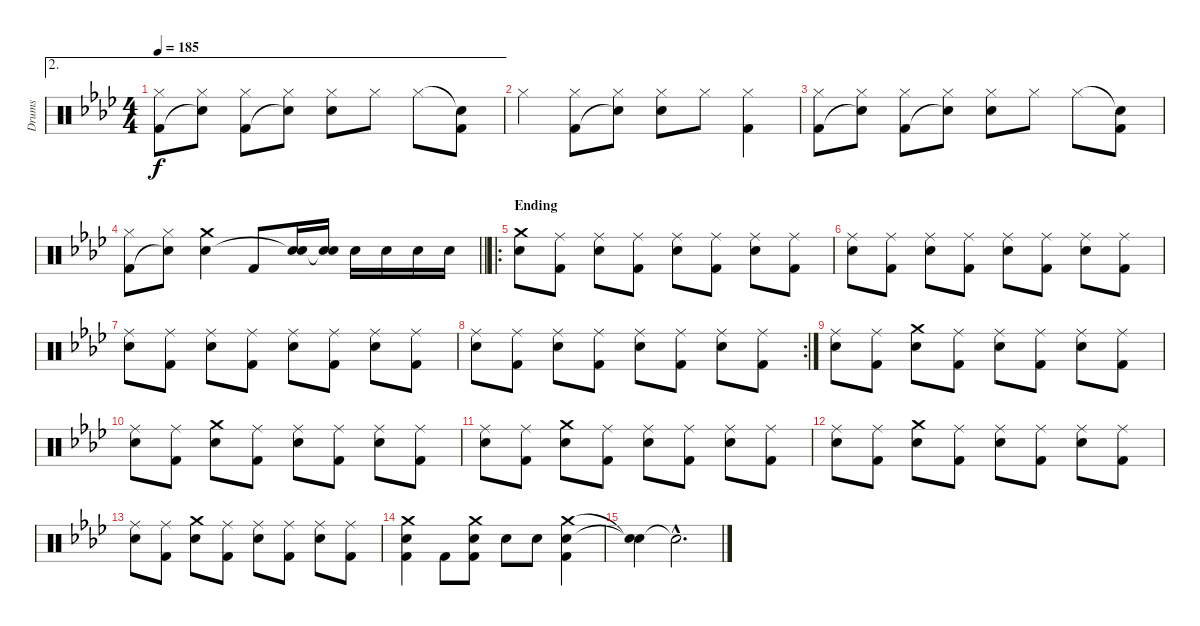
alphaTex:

\track ("Drums" "Drums") {instrument percussion}
\staff {score}
\articulation defaults
\ae 2
\ts (4 4)
\tempo 185
\clef neutral
\ks fminor
("Hi-Hat (closed)" "Kick (hit) 2").8{dy f} ("Hi-Hat (closed)" "Snare (hit)"{t}).8 ("Hi-Hat (closed)" "Kick (hit) 2").8 ("Hi-Hat (closed)" "Snare (hit)"{t}).8 ("Hi-Hat (closed)" "Electric Snare (hit)").8 "Hi-Hat (closed)".8 "Hi-Hat (closed)".8 ("Snare (hit)"{t} "Kick (hit) 2").8 |
"Hi-Hat (closed)".4 ("Hi-Hat (closed)" "Kick (hit) 2").8 ("Hi-Hat (closed)" "Snare (hit)"{t}).8 ("Hi-Hat (closed)" "Electric Snare (hit)").8 "Hi-Hat (closed)".8 ("Hi-Hat (closed)" "Kick (hit) 2").4 |
("Hi-Hat (closed)" "Kick (hit) 2").8 ("Hi-Hat (closed)" "Snare (hit)"{t}).8 ("Hi-Hat (closed)" "Kick (hit) 2").8 ("Hi-Hat (closed)" "Snare (hit)"{t}).8 ("Hi-Hat (closed)" "Electric Snare (hit)").8 "Hi-Hat (closed)".8 "Hi-Hat (closed)".8 ("Snare (hit)"{t} "Kick (hit) 2").8 |
\barLineRight lightlight
("Hi-Hat (closed)" "Kick (hit) 2").8 ("Hi-Hat (closed)" "Snare (hit)"{t}).8 ("Crash medium (hit)" "Electric Snare (hit)").4 "Kick (hit) 2".8 ("Electric Snare (hit)" "Snare (hit)"{t}).16 ("Electric Snare (hit)" "Snare (hit)"{t}).16 "Electric Snare (hit)".16 "Electric Snare (hit)".16 "Electric Snare (hit)".16 "Electric Snare (hit)".16 |
\ro
\section ("" "Ending")
("Crash medium (hit)" "Electric Snare (hit)").8 ("Ride (middle)" "Kick (hit) 2").8 ("Ride (middle)" "Electric Snare (hit)").8 ("Ride (middle)" "Kick (hit) 2").8 ("Ride (middle)" "Electric Snare (hit)").8 ("Ride (middle)" "Kick (hit) 2").8 ("Ride (middle)" "Electric Snare (hit)").8 ("Ride (middle)" "Kick (hit) 2").8 |
("Ride (middle)" "Electric Snare (hit)").8 ("Ride (middle)" "Kick (hit) 2").8 ("Ride (middle)" "Electric Snare (hit)").8 ("Ride (middle)" "Kick (hit) 2").8 ("Ride (middle)" "Electric Snare (hit)").8 ("Ride (middle)" "Kick (hit) 2").8 ("Ride (middle)" "Electric Snare (hit)").8 ("Ride (middle)" "Kick (hit) 2").8 |
("Ride (middle)" "Electric Snare (hit)").8 ("Ride (middle)" "Kick (hit) 2").8 ("Ride (middle)" "Electric Snare (hit)").8 ("Ride (middle)" "Kick (hit) 2").8 ("Ride (middle)" "Electric Snare (hit)").8 ("Ride (middle)" "Kick (hit) 2").8 ("Ride (middle)" "Electric Snare (hit)").8 ("Ride (middle)" "Kick (hit) 2").8 |
\rc 2
("Ride (middle)" "Electric Snare (hit)").8 ("Ride (middle)" "Kick (hit) 2").8 ("Ride (middle)" "Electric Snare (hit)").8 ("Ride (middle)" "Kick (hit) 2").8 ("Ride (middle)" "Electric Snare (hit)").8 ("Ride (middle)" "Kick (hit) 2").8 ("Ride (middle)" "Electric Snare (hit)").8 ("Ride (middle)" "Kick (hit) 2").8 |
("Ride (middle)" "Electric Snare (hit)").8 ("Ride (middle)" "Kick (hit) 2").8 ("Crash medium (hit)" "Electric Snare (hit)").8 ("Ride (middle)" "Kick (hit) 2").8 ("Ride (middle)" "Electric Snare (hit)").8 ("Ride (middle)" "Kick (hit) 2").8 ("Ride (middle)" "Electric Snare (hit)").8 ("Ride (middle)" "Kick (hit) 2").8 |
("Ride (middle)" "Electric Snare (hit)").8 ("Ride (middle)" "Kick (hit) 2").8 ("Crash medium (hit)" "Electric Snare (hit)").8 ("Ride (middle)" "Kick (hit) 2").8 ("Ride (middle)" "Electric Snare (hit)").8 ("Ride (middle)" "Kick (hit) 2").8 ("Ride (middle)" "Electric Snare (hit)").8 ("Ride (middle)" "Kick (hit) 2").8 |
("Ride (middle)" "Electric Snare (hit)").8 ("Ride (middle)" "Kick (hit) 2").8 ("Crash medium (hit)" "Electric Snare (hit)").8 ("Ride (middle)" "Kick (hit) 2").8 ("Ride (middle)" "Electric Snare (hit)").8 ("Ride (middle)" "Kick (hit) 2").8 ("Ride (middle)" "Electric Snare (hit)").8 ("Ride (middle)" "Kick (hit) 2").8 |
("Ride (middle)" "Electric Snare (hit)").8 ("Ride (middle)" "Kick (hit) 2").8 ("Crash medium (hit)" "Electric Snare (hit)").8 ("Ride (middle)" "Kick (hit) 2").8 ("Ride (middle)" "Electric Snare (hit)").8 ("Ride (middle)" "Kick (hit) 2").8 ("Ride (middle)" "Electric Snare (hit)").8 ("Ride (middle)" "Kick (hit) 2").8 |
("Ride (middle)" "Electric Snare (hit)").8 ("Ride (middle)" "Kick (hit) 2").8 ("Crash medium (hit)" "Electric Snare (hit)").8 ("Ride (middle)" "Kick (hit) 2").8 ("Ride (middle)" "Electric Snare (hit)").8 ("Ride (middle)" "Kick (hit) 2").8 ("Ride (middle)" "Electric Snare (hit)").8 ("Ride (middle)" "Kick (hit) 2").8 |
("Crash medium (hit)" "Electric Snare (hit)" "Kick (hit) 2").4 "Kick (hit) 2".8 ("Crash medium (hit)" "Electric Snare (hit)" "Kick (hit) 2").8 "Electric Snare (hit)".8 "Electric Snare (hit)".8 ("Crash medium (hit)" "Electric Snare (hit)" "Kick (hit) 2").4 |
("Snare (hit)"{t} "Snare (hit)"{t}).4 "Snare (hit)"{hac t}.2{d}
